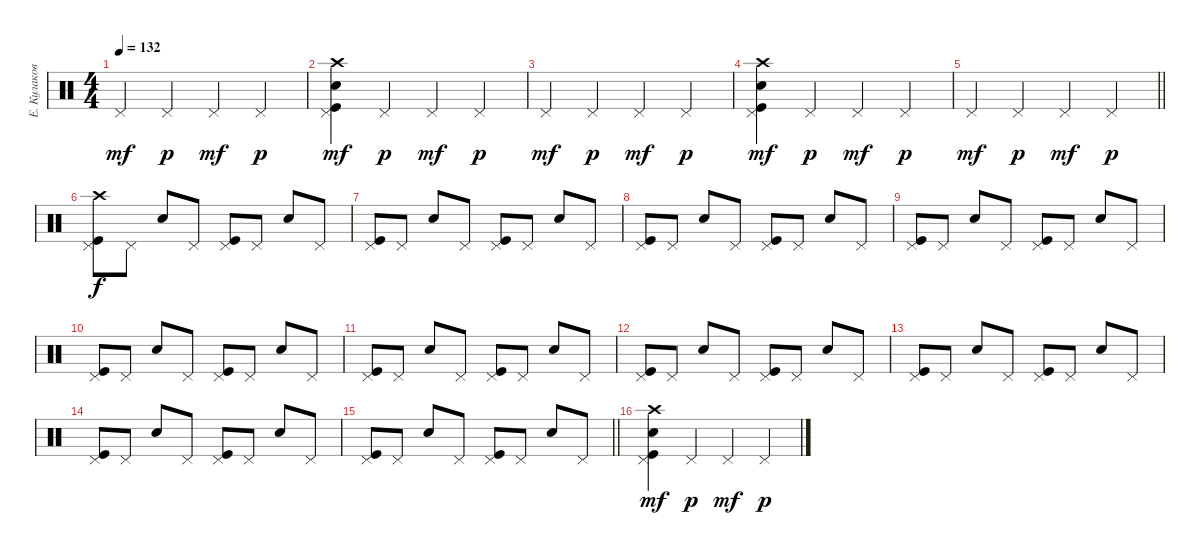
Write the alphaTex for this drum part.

\track ("Е. Кулаков" "Е. Кулаков") {instrument percussion}
\staff {score}
\articulation defaults
\ts (4 4)
\tempo 132
\clef neutral
\ks c "Pedal Hi-Hat (hit)".4{dy mf} "Pedal Hi-Hat (hit)".4{dy p} "Pedal Hi-Hat (hit)".4{dy mf} "Pedal Hi-Hat (hit)".4{dy p}
|
("Snare (hit) 2" "Kick (hit)" "Crash high (hit)" "Pedal Hi-Hat (hit)").4{dy mf} "Pedal Hi-Hat (hit)".4{dy p} "Pedal Hi-Hat (hit)".4{dy mf} "Pedal Hi-Hat (hit)".4{dy p} |
"Pedal Hi-Hat (hit)".4{dy mf} "Pedal Hi-Hat (hit)".4{dy p} "Pedal Hi-Hat (hit)".4{dy mf} "Pedal Hi-Hat (hit)".4{dy p} |
("Snare (hit) 2" "Kick (hit)" "Crash high (hit)" "Pedal Hi-Hat (hit)").4{dy mf} "Pedal Hi-Hat (hit)".4{dy p} "Pedal Hi-Hat (hit)".4{dy mf} "Pedal Hi-Hat (hit)".4{dy p} |
\barLineRight lightlight "Pedal Hi-Hat (hit)".4{dy mf} "Pedal Hi-Hat (hit)".4{dy p} "Pedal Hi-Hat (hit)".4{dy mf} "Pedal Hi-Hat (hit)".4{dy p}
|
\section ("" "")
("Kick (hit)" "Pedal Hi-Hat (hit)" "Crash high (hit)").8{dy f} "Pedal Hi-Hat (hit)".8 "Snare (hit) 2".8 "Pedal Hi-Hat (hit)".8 ("Kick (hit)" "Pedal Hi-Hat (hit)").8 "Pedal Hi-Hat (hit)".8 "Snare (hit) 2".8 "Pedal Hi-Hat (hit)".8 |
("Kick (hit)" "Pedal Hi-Hat (hit)").8 "Pedal Hi-Hat (hit)".8 "Snare (hit) 2".8 "Pedal Hi-Hat (hit)".8 ("Kick (hit)" "Pedal Hi-Hat (hit)").8 "Pedal Hi-Hat (hit)".8 "Snare (hit) 2".8 "Pedal Hi-Hat (hit)".8 |
("Kick (hit)" "Pedal Hi-Hat (hit)").8 "Pedal Hi-Hat (hit)".8 "Snare (hit) 2".8 "Pedal Hi-Hat (hit)".8 ("Kick (hit)" "Pedal Hi-Hat (hit)").8 "Pedal Hi-Hat (hit)".8 "Snare (hit) 2".8 "Pedal Hi-Hat (hit)".8 |
("Kick (hit)" "Pedal Hi-Hat (hit)").8 "Pedal Hi-Hat (hit)".8 "Snare (hit) 2".8 "Pedal Hi-Hat (hit)".8 ("Kick (hit)" "Pedal Hi-Hat (hit)").8 "Pedal Hi-Hat (hit)".8 "Snare (hit) 2".8 "Pedal Hi-Hat (hit)".8 |
("Kick (hit)" "Pedal Hi-Hat (hit)").8 "Pedal Hi-Hat (hit)".8 "Snare (hit) 2".8 "Pedal Hi-Hat (hit)".8 ("Kick (hit)" "Pedal Hi-Hat (hit)").8 "Pedal Hi-Hat (hit)".8 "Snare (hit) 2".8 "Pedal Hi-Hat (hit)".8 |
("Kick (hit)" "Pedal Hi-Hat (hit)").8 "Pedal Hi-Hat (hit)".8 "Snare (hit) 2".8 "Pedal Hi-Hat (hit)".8 ("Kick (hit)" "Pedal Hi-Hat (hit)").8 "Pedal Hi-Hat (hit)".8 "Snare (hit) 2".8 "Pedal Hi-Hat (hit)".8 |
("Kick (hit)" "Pedal Hi-Hat (hit)").8 "Pedal Hi-Hat (hit)".8 "Snare (hit) 2".8 "Pedal Hi-Hat (hit)".8 ("Kick (hit)" "Pedal Hi-Hat (hit)").8 "Pedal Hi-Hat (hit)".8 "Snare (hit) 2".8 "Pedal Hi-Hat (hit)".8 |
("Kick (hit)" "Pedal Hi-Hat (hit)").8 "Pedal Hi-Hat (hit)".8 "Snare (hit) 2".8 "Pedal Hi-Hat (hit)".8 ("Kick (hit)" "Pedal Hi-Hat (hit)").8 "Pedal Hi-Hat (hit)".8 "Snare (hit) 2".8 "Pedal Hi-Hat (hit)".8 |
("Kick (hit)" "Pedal Hi-Hat (hit)").8 "Pedal Hi-Hat (hit)".8 "Snare (hit) 2".8 "Pedal Hi-Hat (hit)".8 ("Kick (hit)" "Pedal Hi-Hat (hit)").8 "Pedal Hi-Hat (hit)".8 "Snare (hit) 2".8 "Pedal Hi-Hat (hit)".8 |
\barLineRight lightlight
("Kick (hit)" "Pedal Hi-Hat (hit)").8 "Pedal Hi-Hat (hit)".8 "Snare (hit) 2".8 "Pedal Hi-Hat (hit)".8 ("Kick (hit)" "Pedal Hi-Hat (hit)").8 "Pedal Hi-Hat (hit)".8 "Snare (hit) 2".8 "Pedal Hi-Hat (hit)".8 |
\section ("" "")
("Snare (hit) 2" "Kick (hit)" "Crash high (hit)" "Pedal Hi-Hat (hit)").4{dy mf} "Pedal Hi-Hat (hit)".4{dy p} "Pedal Hi-Hat (hit)".4{dy mf} "Pedal Hi-Hat (hit)".4{dy p}
